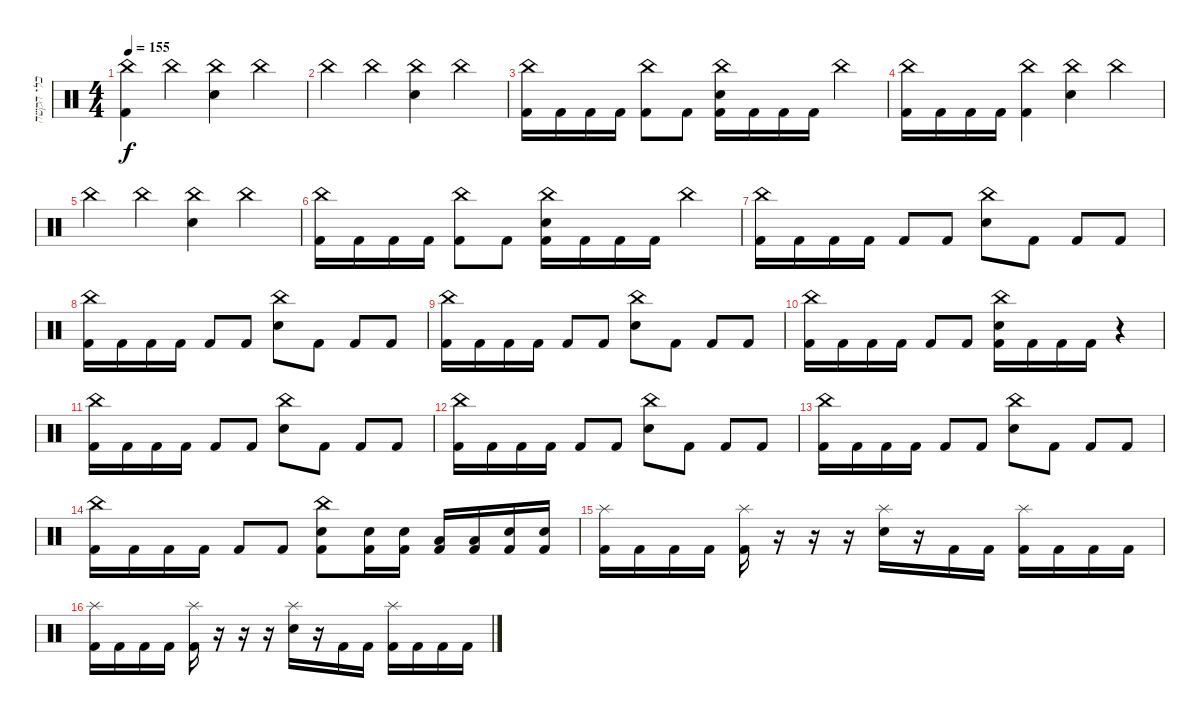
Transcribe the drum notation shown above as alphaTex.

\track ("כלי הקשה" "כלי הקשה") {instrument percussion}
\staff {score}
\articulation defaults
\ts (4 4)
\tempo 155
\clef neutral
\ks c
("China (hit)" "Kick (hit) 2").4{dy f} "China (hit)".4 ("China (hit)" "Snare (hit) 2").4 "China (hit)".4 |
"China (hit)".4 "China (hit)".4 ("China (hit)" "Snare (hit) 2").4 "China (hit)".4 |
("China (hit)" "Kick (hit) 2").16 "Kick (hit) 2".16 "Kick (hit) 2".16 "Kick (hit) 2".16 ("China (hit)" "Kick (hit) 2").8 "Kick (hit) 2".8 ("China (hit)" "Snare (hit) 2" "Kick (hit) 2").16 "Kick (hit) 2".16 "Kick (hit) 2".16 "Kick (hit) 2".16 "China (hit)".4 |
("China (hit)" "Kick (hit) 2").16 "Kick (hit) 2".16 "Kick (hit) 2".16 "Kick (hit) 2".16 ("China (hit)" "Kick (hit) 2").4 ("China (hit)" "Snare (hit) 2").4 "China (hit)".4 |
"China (hit)".4 "China (hit)".4 ("China (hit)" "Snare (hit) 2").4 "China (hit)".4 |
("China (hit)" "Kick (hit) 2").16 "Kick (hit) 2".16 "Kick (hit) 2".16 "Kick (hit) 2".16 ("China (hit)" "Kick (hit) 2").8 "Kick (hit) 2".8 ("China (hit)" "Snare (hit) 2" "Kick (hit) 2").16 "Kick (hit) 2".16 "Kick (hit) 2".16 "Kick (hit) 2".16 "China (hit)".4 |
("China (hit)" "Kick (hit) 2").16 "Kick (hit) 2".16 "Kick (hit) 2".16 "Kick (hit) 2".16 "Kick (hit) 2".8 "Kick (hit) 2".8 ("China (hit)" "Snare (hit) 2").8 "Kick (hit) 2".8 "Kick (hit) 2".8 "Kick (hit) 2".8 |
("China (hit)" "Kick (hit) 2").16 "Kick (hit) 2".16 "Kick (hit) 2".16 "Kick (hit) 2".16 "Kick (hit) 2".8 "Kick (hit) 2".8 ("China (hit)" "Snare (hit) 2").8 "Kick (hit) 2".8 "Kick (hit) 2".8 "Kick (hit) 2".8 |
("China (hit)" "Kick (hit) 2").16 "Kick (hit) 2".16 "Kick (hit) 2".16 "Kick (hit) 2".16 "Kick (hit) 2".8 "Kick (hit) 2".8 ("China (hit)" "Snare (hit) 2").8 "Kick (hit) 2".8 "Kick (hit) 2".8 "Kick (hit) 2".8 |
("China (hit)" "Kick (hit) 2").16 "Kick (hit) 2".16 "Kick (hit) 2".16 "Kick (hit) 2".16 "Kick (hit) 2".8 "Kick (hit) 2".8 ("China (hit)" "Snare (hit) 2" "Kick (hit) 2").16 "Kick (hit) 2".16 "Kick (hit) 2".16 "Kick (hit) 2".16 r.4 |
("China (hit)" "Kick (hit) 2").16 "Kick (hit) 2".16 "Kick (hit) 2".16 "Kick (hit) 2".16 "Kick (hit) 2".8 "Kick (hit) 2".8 ("China (hit)" "Snare (hit) 2").8 "Kick (hit) 2".8 "Kick (hit) 2".8 "Kick (hit) 2".8 |
("China (hit)" "Kick (hit) 2").16 "Kick (hit) 2".16 "Kick (hit) 2".16 "Kick (hit) 2".16 "Kick (hit) 2".8 "Kick (hit) 2".8 ("China (hit)" "Snare (hit) 2").8 "Kick (hit) 2".8 "Kick (hit) 2".8 "Kick (hit) 2".8 |
("China (hit)" "Kick (hit) 2").16 "Kick (hit) 2".16 "Kick (hit) 2".16 "Kick (hit) 2".16 "Kick (hit) 2".8 "Kick (hit) 2".8 ("China (hit)" "Snare (hit) 2").8 "Kick (hit) 2".8 "Kick (hit) 2".8 "Kick (hit) 2".8 |
("China (hit)" "Kick (hit) 2").16 "Kick (hit) 2".16 "Kick (hit) 2".16 "Kick (hit) 2".16 "Kick (hit) 2".8 "Kick (hit) 2".8 ("China (hit)" "Snare (hit) 2" "Kick (hit) 2").8 ("Snare (hit) 2" "Kick (hit) 2").16 ("Snare (hit) 2" "Kick (hit) 2").16 ("Low Tom (hit)" "Kick (hit) 2").16 ("Low Tom (hit)" "Kick (hit) 2").16 ("Snare (hit) 2" "Kick (hit) 2").16 ("Snare (hit) 2" "Kick (hit) 2").16 |
("Splash (hit)" "Kick (hit) 2").16 "Kick (hit) 2".16 "Kick (hit) 2".16 "Kick (hit) 2".16 ("Splash (hit)" "Kick (hit) 2").16 r.16 r.16 r.16 ("Splash (hit)" "Snare (hit) 2").16 r.16 "Kick (hit) 2".16 "Kick (hit) 2".16 ("Splash (hit)" "Kick (hit) 2").16 "Kick (hit) 2".16 "Kick (hit) 2".16 "Kick (hit) 2".16 |
("Splash (hit)" "Kick (hit) 2").16 "Kick (hit) 2".16 "Kick (hit) 2".16 "Kick (hit) 2".16 ("Splash (hit)" "Kick (hit) 2").16 r.16 r.16 r.16 ("Splash (hit)" "Snare (hit) 2").16 r.16 "Kick (hit) 2".16 "Kick (hit) 2".16 ("Splash (hit)" "Kick (hit) 2").16 "Kick (hit) 2".16 "Kick (hit) 2".16 "Kick (hit) 2".16
